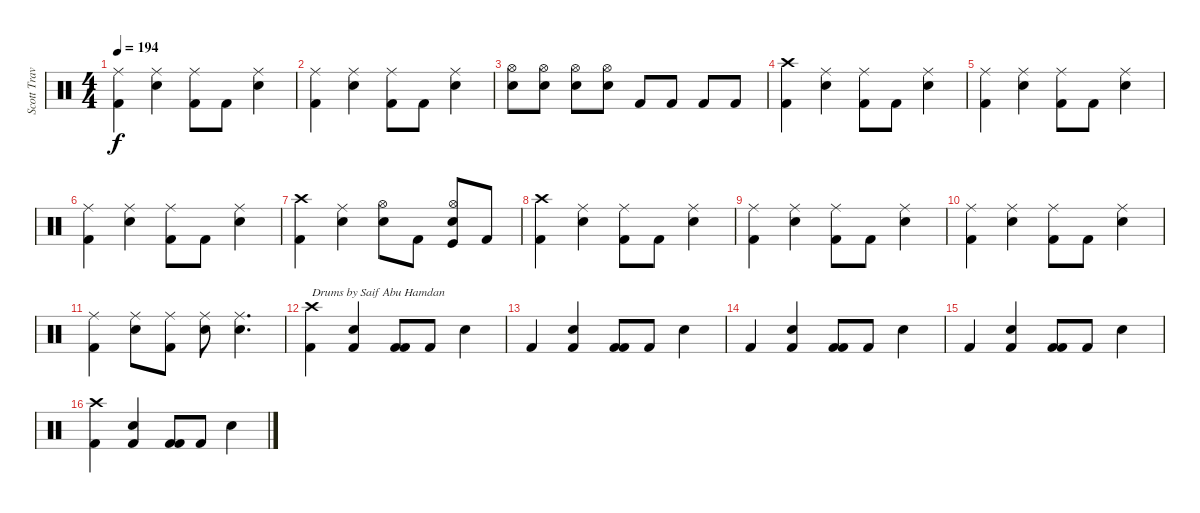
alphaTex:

\track ("Scott Travis" "Scott Trav") {instrument percussion}
\staff {score}
\articulation defaults
\ts (4 4)
\tempo 194
\clef neutral
\ks c
("Kick (hit) 2" "Ride (middle)").4{dy f} ("Ride (middle)" "Snare (hit) 2").4 ("Ride (middle)" "Kick (hit) 2").8 "Kick (hit) 2".8 ("Snare (hit) 2" "Ride (middle)").4 |
("Kick (hit) 2" "Ride (middle)").4 ("Ride (middle)" "Snare (hit) 2").4 ("Ride (middle)" "Kick (hit) 2").8 "Kick (hit) 2".8 ("Snare (hit) 2" "Ride (middle)").4 |
("Hi-Hat (open)" "Snare (hit) 2").8 ("Hi-Hat (open)" "Snare (hit) 2").8 ("Hi-Hat (open)" "Snare (hit) 2").8 ("Hi-Hat (open)" "Snare (hit) 2").8 "Kick (hit) 2".8 "Kick (hit) 2".8 "Kick (hit) 2".8 "Kick (hit) 2".8 |
("Kick (hit) 2" "Crash high (hit)").4 ("Ride (middle)" "Snare (hit) 2").4 ("Ride (middle)" "Kick (hit) 2").8 "Kick (hit) 2".8 ("Snare (hit) 2" "Ride (middle)").4 |
("Kick (hit) 2" "Ride (middle)").4 ("Ride (middle)" "Snare (hit) 2").4 ("Ride (middle)" "Kick (hit) 2").8 "Kick (hit) 2".8 ("Snare (hit) 2" "Ride (middle)").4 |
("Kick (hit) 2" "Ride (middle)").4 ("Ride (middle)" "Snare (hit) 2").4 ("Ride (middle)" "Kick (hit) 2").8 "Kick (hit) 2".8 ("Snare (hit) 2" "Ride (middle)").4 |
("Kick (hit) 2" "Crash high (hit)").4 ("Ride (middle)" "Snare (hit) 2").4 ("Hi-Hat (open)" "Snare (hit) 2").8 "Kick (hit) 2".8 ("Hi-Hat (open)" "Snare (hit) 2" "Kick (hit)").8 "Kick (hit) 2".8 |
("Kick (hit) 2" "Crash high (hit)").4 ("Ride (middle)" "Snare (hit) 2").4 ("Ride (middle)" "Kick (hit) 2").8 "Kick (hit) 2".8 ("Snare (hit) 2" "Ride (middle)").4 |
("Kick (hit) 2" "Ride (middle)").4 ("Ride (middle)" "Snare (hit) 2").4 ("Ride (middle)" "Kick (hit) 2").8 "Kick (hit) 2".8 ("Snare (hit) 2" "Ride (middle)").4 |
("Kick (hit) 2" "Ride (middle)").4 ("Ride (middle)" "Snare (hit) 2").4 ("Ride (middle)" "Kick (hit) 2").8 "Kick (hit) 2".8 ("Snare (hit) 2" "Ride (middle)").4 |
("Kick (hit) 2" "Ride (middle)").4 ("Ride (middle)" "Snare (hit) 2").8 ("Ride (middle)" "Kick (hit) 2").8 ("Ride (middle)" "Snare (hit) 2").8 ("Ride (middle)" "Snare (hit) 2").4{d} |
("Kick (hit) 2" "Crash high (hit)").4{txt "Drums by Saif Abu Hamdan"} ("Kick (hit) 2" "Snare (hit) 2").4 ("Kick (hit) 2" "Kick (hit) 2").8 "Kick (hit) 2".8 "Snare (hit) 2".4 |
"Kick (hit) 2".4 ("Kick (hit) 2" "Snare (hit) 2").4 ("Kick (hit) 2" "Kick (hit) 2").8 "Kick (hit) 2".8 "Snare (hit) 2".4 |
"Kick (hit) 2".4 ("Kick (hit) 2" "Snare (hit) 2").4 ("Kick (hit) 2" "Kick (hit) 2").8 "Kick (hit) 2".8 "Snare (hit) 2".4 |
"Kick (hit) 2".4 ("Kick (hit) 2" "Snare (hit) 2").4 ("Kick (hit) 2" "Kick (hit) 2").8 "Kick (hit) 2".8 "Snare (hit) 2".4 |
("Kick (hit) 2" "Crash high (hit)").4 ("Kick (hit) 2" "Snare (hit) 2").4 ("Kick (hit) 2" "Kick (hit) 2").8 "Kick (hit) 2".8 "Snare (hit) 2".4
